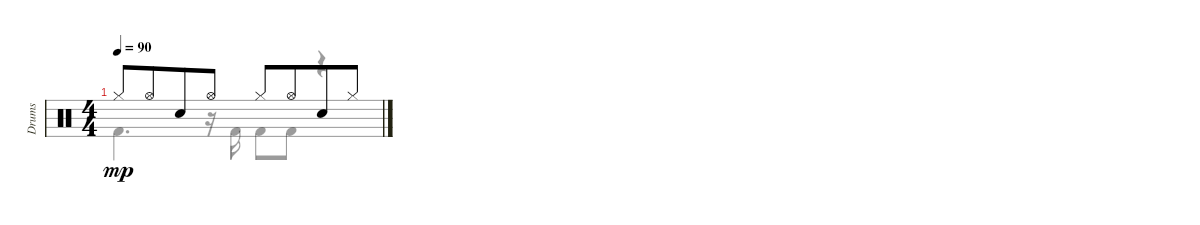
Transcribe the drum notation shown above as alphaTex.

\track ("Drums" "Drums") {instrument percussion}
\staff {score}
\articulation defaults
\voice
\ts (4 4)
\tempo 90
\clef neutral
\ks c "Hi-Hat (closed)".8{dy mp} "Hi-Hat (open)".8{beam merge} "Snare (hit) 2".8 "Hi-Hat (open)".8 "Hi-Hat (closed)".8 "Hi-Hat (open)".8{beam merge} "Snare (hit) 2".8 "Hi-Hat (closed)".8
\voice
\clef neutral
\ks c "Kick (hit) 2".4{d dy mp}
r.16 "Kick (hit) 2".16 "Kick (hit) 2".8 "Kick (hit) 2".8 r.4
